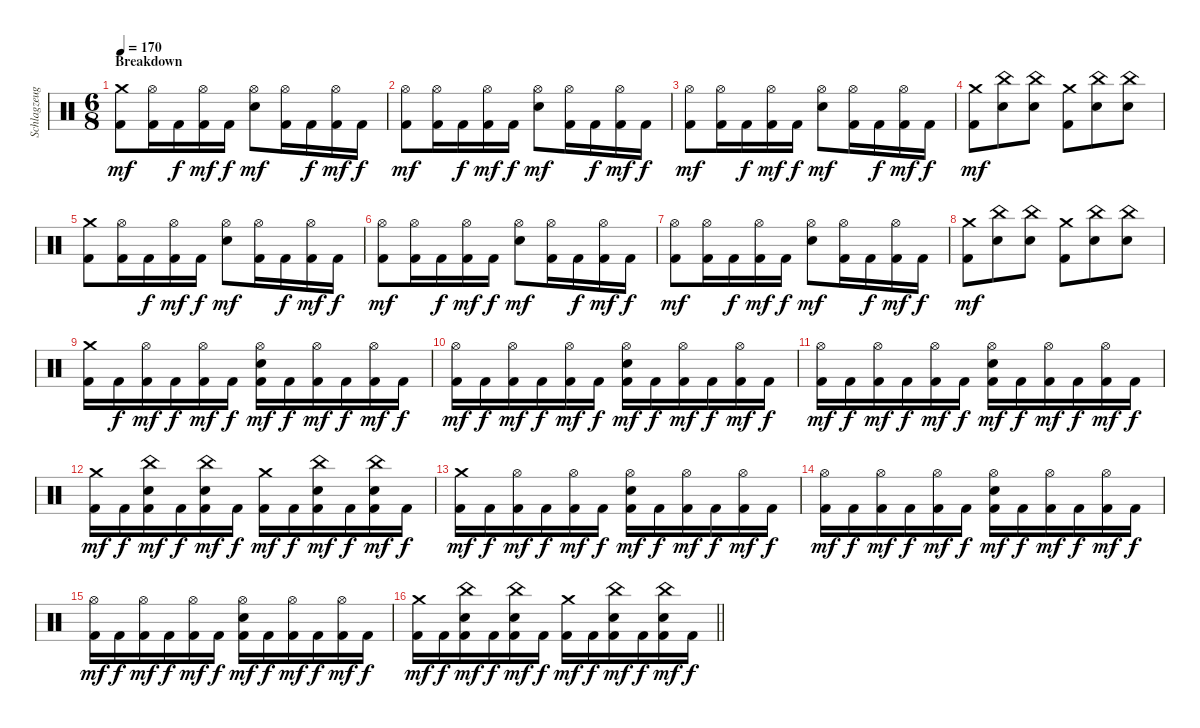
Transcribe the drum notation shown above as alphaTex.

\track ("Schlagzeug" "Schlagzeug") {instrument percussion}
\staff {score}
\articulation defaults
\ts (6 8)
\section ("" "Breakdown")
\tempo 170
\clef neutral
\ks c
("Crash medium (hit)" "Kick (hit) 2").8{dy mf} ("Hi-Hat (open)" "Kick (hit) 2").16 "Kick (hit) 2".16{dy f} ("Hi-Hat (open)" "Kick (hit) 2").16{dy mf} "Kick (hit) 2".16{dy f} ("Hi-Hat (open)" "Electric Snare (hit)").8{dy mf} ("Hi-Hat (open)" "Kick (hit) 2").16 "Kick (hit) 2".16{dy f} ("Hi-Hat (open)" "Kick (hit) 2").16{dy mf} "Kick (hit) 2".16{dy f} |
("Hi-Hat (open)" "Kick (hit) 2").8{dy mf} ("Hi-Hat (open)" "Kick (hit) 2").16 "Kick (hit) 2".16{dy f} ("Hi-Hat (open)" "Kick (hit) 2").16{dy mf} "Kick (hit) 2".16{dy f} ("Hi-Hat (open)" "Electric Snare (hit)").8{dy mf} ("Hi-Hat (open)" "Kick (hit) 2").16 "Kick (hit) 2".16{dy f} ("Hi-Hat (open)" "Kick (hit) 2").16{dy mf} "Kick (hit) 2".16{dy f} |
("Hi-Hat (open)" "Kick (hit) 2").8{dy mf} ("Hi-Hat (open)" "Kick (hit) 2").16 "Kick (hit) 2".16{dy f} ("Hi-Hat (open)" "Kick (hit) 2").16{dy mf} "Kick (hit) 2".16{dy f} ("Hi-Hat (open)" "Electric Snare (hit)").8{dy mf} ("Hi-Hat (open)" "Kick (hit) 2").16 "Kick (hit) 2".16{dy f} ("Hi-Hat (open)" "Kick (hit) 2").16{dy mf} "Kick (hit) 2".16{dy f} |
("Crash medium (hit)" "Kick (hit) 2").8{dy mf} ("China (hit)" "Electric Snare (hit)").8 ("China (hit)" "Electric Snare (hit)").8 ("Crash medium (hit)" "Kick (hit) 2").8 ("China (hit)" "Electric Snare (hit)").8 ("China (hit)" "Electric Snare (hit)").8 |
("Crash medium (hit)" "Kick (hit) 2").8 ("Hi-Hat (open)" "Kick (hit) 2").16 "Kick (hit) 2".16{dy f} ("Hi-Hat (open)" "Kick (hit) 2").16{dy mf} "Kick (hit) 2".16{dy f} ("Hi-Hat (open)" "Electric Snare (hit)").8{dy mf} ("Hi-Hat (open)" "Kick (hit) 2").16 "Kick (hit) 2".16{dy f} ("Hi-Hat (open)" "Kick (hit) 2").16{dy mf} "Kick (hit) 2".16{dy f} |
("Hi-Hat (open)" "Kick (hit) 2").8{dy mf} ("Hi-Hat (open)" "Kick (hit) 2").16 "Kick (hit) 2".16{dy f} ("Hi-Hat (open)" "Kick (hit) 2").16{dy mf} "Kick (hit) 2".16{dy f} ("Hi-Hat (open)" "Electric Snare (hit)").8{dy mf} ("Hi-Hat (open)" "Kick (hit) 2").16 "Kick (hit) 2".16{dy f} ("Hi-Hat (open)" "Kick (hit) 2").16{dy mf} "Kick (hit) 2".16{dy f} |
("Hi-Hat (open)" "Kick (hit) 2").8{dy mf} ("Hi-Hat (open)" "Kick (hit) 2").16 "Kick (hit) 2".16{dy f} ("Hi-Hat (open)" "Kick (hit) 2").16{dy mf} "Kick (hit) 2".16{dy f} ("Hi-Hat (open)" "Electric Snare (hit)").8{dy mf} ("Hi-Hat (open)" "Kick (hit) 2").16 "Kick (hit) 2".16{dy f} ("Hi-Hat (open)" "Kick (hit) 2").16{dy mf} "Kick (hit) 2".16{dy f} |
("Crash medium (hit)" "Kick (hit) 2").8{dy mf} ("China (hit)" "Electric Snare (hit)").8 ("China (hit)" "Electric Snare (hit)").8 ("Crash medium (hit)" "Kick (hit) 2").8 ("China (hit)" "Electric Snare (hit)").8 ("China (hit)" "Electric Snare (hit)").8 |
("Crash medium (hit)" "Kick (hit) 2").16 "Kick (hit) 2".16{dy f} ("Hi-Hat (open)" "Kick (hit) 2").16{dy mf} "Kick (hit) 2".16{dy f} ("Hi-Hat (open)" "Kick (hit) 2").16{dy mf} "Kick (hit) 2".16{dy f} ("Hi-Hat (open)" "Electric Snare (hit)" "Kick (hit) 2").16{dy mf} "Kick (hit) 2".16{dy f} ("Hi-Hat (open)" "Kick (hit) 2").16{dy mf} "Kick (hit) 2".16{dy f} ("Hi-Hat (open)" "Kick (hit) 2").16{dy mf} "Kick (hit) 2".16{dy f} |
("Hi-Hat (open)" "Kick (hit) 2").16{dy mf} "Kick (hit) 2".16{dy f} ("Hi-Hat (open)" "Kick (hit) 2").16{dy mf} "Kick (hit) 2".16{dy f} ("Hi-Hat (open)" "Kick (hit) 2").16{dy mf} "Kick (hit) 2".16{dy f} ("Hi-Hat (open)" "Electric Snare (hit)" "Kick (hit) 2").16{dy mf} "Kick (hit) 2".16{dy f} ("Hi-Hat (open)" "Kick (hit) 2").16{dy mf} "Kick (hit) 2".16{dy f} ("Hi-Hat (open)" "Kick (hit) 2").16{dy mf} "Kick (hit) 2".16{dy f} |
("Hi-Hat (open)" "Kick (hit) 2").16{dy mf} "Kick (hit) 2".16{dy f} ("Hi-Hat (open)" "Kick (hit) 2").16{dy mf} "Kick (hit) 2".16{dy f} ("Hi-Hat (open)" "Kick (hit) 2").16{dy mf} "Kick (hit) 2".16{dy f} ("Hi-Hat (open)" "Electric Snare (hit)" "Kick (hit) 2").16{dy mf} "Kick (hit) 2".16{dy f} ("Hi-Hat (open)" "Kick (hit) 2").16{dy mf} "Kick (hit) 2".16{dy f} ("Hi-Hat (open)" "Kick (hit) 2").16{dy mf} "Kick (hit) 2".16{dy f} |
("Crash medium (hit)" "Kick (hit) 2").16{dy mf} "Kick (hit) 2".16{dy f} ("China (hit)" "Electric Snare (hit)" "Kick (hit) 2").16{dy mf} "Kick (hit) 2".16{dy f} ("China (hit)" "Electric Snare (hit)" "Kick (hit) 2").16{dy mf} "Kick (hit) 2".16{dy f} ("Crash medium (hit)" "Kick (hit) 2").16{dy mf} "Kick (hit) 2".16{dy f} ("China (hit)" "Electric Snare (hit)" "Kick (hit) 2").16{dy mf} "Kick (hit) 2".16{dy f} ("China (hit)" "Electric Snare (hit)" "Kick (hit) 2").16{dy mf} "Kick (hit) 2".16{dy f} |
("Crash medium (hit)" "Kick (hit) 2").16{dy mf} "Kick (hit) 2".16{dy f} ("Hi-Hat (open)" "Kick (hit) 2").16{dy mf} "Kick (hit) 2".16{dy f} ("Hi-Hat (open)" "Kick (hit) 2").16{dy mf} "Kick (hit) 2".16{dy f} ("Hi-Hat (open)" "Electric Snare (hit)" "Kick (hit) 2").16{dy mf} "Kick (hit) 2".16{dy f} ("Hi-Hat (open)" "Kick (hit) 2").16{dy mf} "Kick (hit) 2".16{dy f} ("Hi-Hat (open)" "Kick (hit) 2").16{dy mf} "Kick (hit) 2".16{dy f} |
("Hi-Hat (open)" "Kick (hit) 2").16{dy mf} "Kick (hit) 2".16{dy f} ("Hi-Hat (open)" "Kick (hit) 2").16{dy mf} "Kick (hit) 2".16{dy f} ("Hi-Hat (open)" "Kick (hit) 2").16{dy mf} "Kick (hit) 2".16{dy f} ("Hi-Hat (open)" "Electric Snare (hit)" "Kick (hit) 2").16{dy mf} "Kick (hit) 2".16{dy f} ("Hi-Hat (open)" "Kick (hit) 2").16{dy mf} "Kick (hit) 2".16{dy f} ("Hi-Hat (open)" "Kick (hit) 2").16{dy mf} "Kick (hit) 2".16{dy f} |
("Hi-Hat (open)" "Kick (hit) 2").16{dy mf} "Kick (hit) 2".16{dy f} ("Hi-Hat (open)" "Kick (hit) 2").16{dy mf} "Kick (hit) 2".16{dy f} ("Hi-Hat (open)" "Kick (hit) 2").16{dy mf} "Kick (hit) 2".16{dy f} ("Hi-Hat (open)" "Electric Snare (hit)" "Kick (hit) 2").16{dy mf} "Kick (hit) 2".16{dy f} ("Hi-Hat (open)" "Kick (hit) 2").16{dy mf} "Kick (hit) 2".16{dy f} ("Hi-Hat (open)" "Kick (hit) 2").16{dy mf} "Kick (hit) 2".16{dy f} |
\barLineRight lightlight
("Crash medium (hit)" "Kick (hit) 2").16{dy mf} "Kick (hit) 2".16{dy f} ("China (hit)" "Electric Snare (hit)" "Kick (hit) 2").16{dy mf} "Kick (hit) 2".16{dy f} ("China (hit)" "Electric Snare (hit)" "Kick (hit) 2").16{dy mf} "Kick (hit) 2".16{dy f} ("Crash medium (hit)" "Kick (hit) 2").16{dy mf} "Kick (hit) 2".16{dy f} ("China (hit)" "Electric Snare (hit)" "Kick (hit) 2").16{dy mf} "Kick (hit) 2".16{dy f} ("China (hit)" "Electric Snare (hit)" "Kick (hit) 2").16{dy mf} "Kick (hit) 2".16{dy f}
